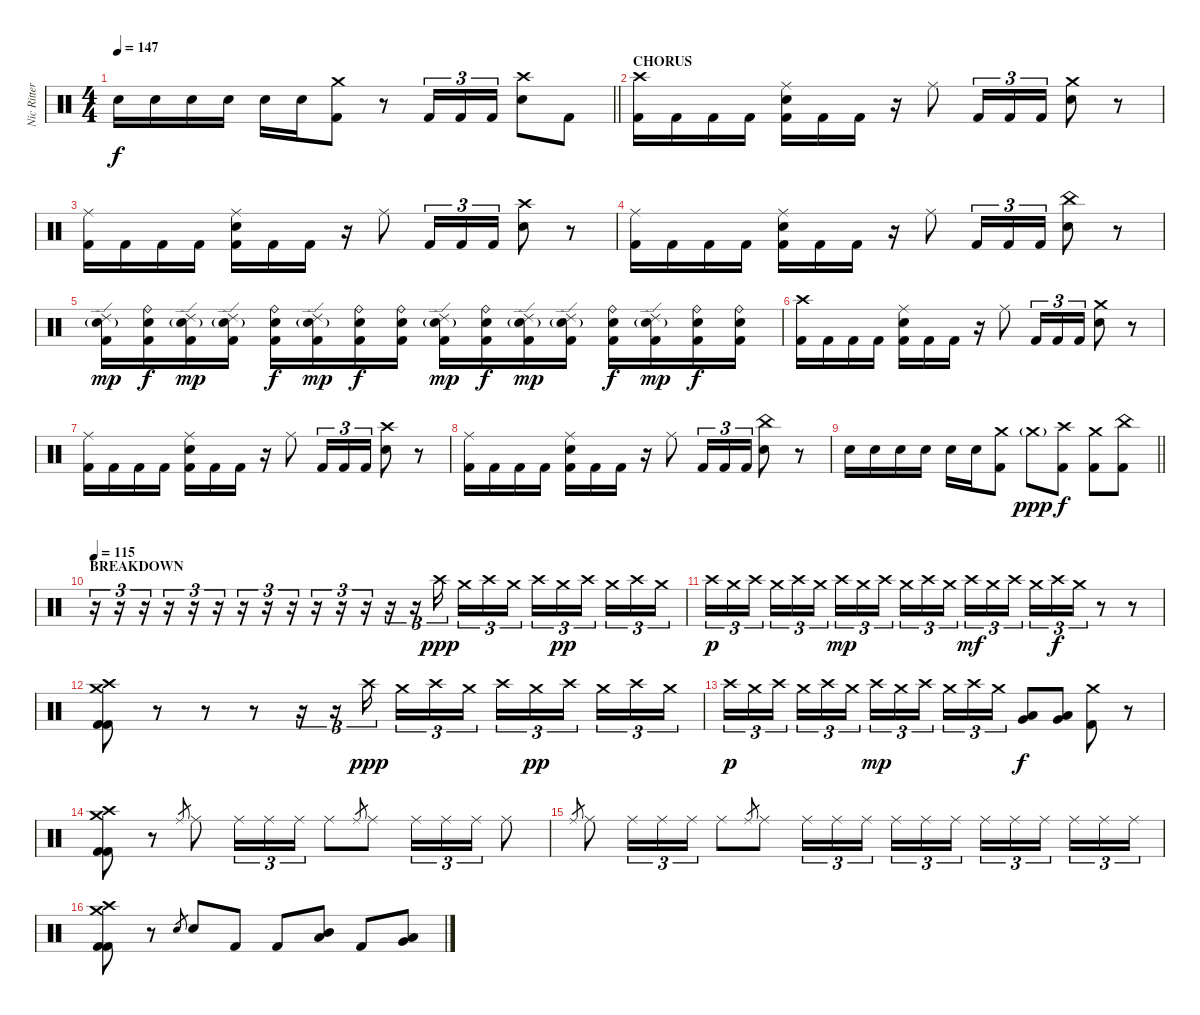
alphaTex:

\track ("Nic Ritter" "Nic Ritter") {instrument percussion}
\staff {score}
\articulation defaults
\ts (4 4)
\tempo 147
\clef neutral
\barLineRight lightlight
\ks c "Electric Snare (hit)".16{dy f} "Electric Snare (hit)".16 "Electric Snare (hit)".16 "Electric Snare (hit)".16 "Electric Snare (hit)".16 "Electric Snare (hit)".16
("Crash medium (hit)" "Kick (hit) 2").8 r.8 "Kick (hit) 2".16{tu (3 2)} "Kick (hit) 2".16{tu (3 2)} "Kick (hit) 2".16{tu (3 2)} ("Crash high (hit)" "Electric Snare (hit)").8 "Kick (hit) 2".8 |
\section ("" "CHORUS")
("Crash high (hit)" "Kick (hit) 2").16 "Kick (hit) 2".16 "Kick (hit) 2".16 "Kick (hit) 2".16 ("Ride (middle)" "Electric Snare (hit)" "Kick (hit) 2").16 "Kick (hit) 2".16 "Kick (hit) 2".16 r.16 "Ride (middle)".8 "Kick (hit) 2".16{tu (3 2)} "Kick (hit) 2".16{tu (3 2)} "Kick (hit) 2".16{tu (3 2)} ("Crash medium (hit)" "Electric Snare (hit)").8 r.8 |
("Ride (middle)" "Kick (hit) 2").16 "Kick (hit) 2".16 "Kick (hit) 2".16 "Kick (hit) 2".16 ("Ride (middle)" "Electric Snare (hit)" "Kick (hit) 2").16 "Kick (hit) 2".16 "Kick (hit) 2".16 r.16 "Ride (middle)".8 "Kick (hit) 2".16{tu (3 2)} "Kick (hit) 2".16{tu (3 2)} "Kick (hit) 2".16{tu (3 2)} ("Crash high (hit)" "Electric Snare (hit)").8 r.8 |
("Ride (middle)" "Kick (hit) 2").16 "Kick (hit) 2".16 "Kick (hit) 2".16 "Kick (hit) 2".16 ("Ride (middle)" "Electric Snare (hit)" "Kick (hit) 2").16 "Kick (hit) 2".16 "Kick (hit) 2".16 r.16 "Ride (middle)".8 "Kick (hit) 2".16{tu (3 2)} "Kick (hit) 2".16{tu (3 2)} "Kick (hit) 2".16{tu (3 2)} ("China (hit)" "Electric Snare (hit)").8 r.8 |
("Ride (edge) 2" "Electric Snare (hit)"{g} "Kick (hit) 2").16{dy mp} ("Ride (bell)" "Electric Snare (hit)" "Kick (hit) 2").16{dy f} ("Ride (edge) 2" "Electric Snare (hit)"{g} "Kick (hit) 2").16{dy mp} ("Ride (edge) 2" "Electric Snare (hit)"{g} "Kick (hit) 2").16 ("Ride (bell)" "Electric Snare (hit)" "Kick (hit) 2").16{dy f} ("Ride (edge) 2" "Electric Snare (hit)"{g} "Kick (hit) 2").16{dy mp} ("Ride (bell)" "Electric Snare (hit)" "Kick (hit) 2").16{dy f} ("Ride (bell)" "Electric Snare (hit)" "Kick (hit) 2").16 ("Ride (edge) 2" "Electric Snare (hit)"{g} "Kick (hit) 2").16{dy mp} ("Ride (bell)" "Electric Snare (hit)" "Kick (hit) 2").16{dy f} ("Ride (edge) 2" "Electric Snare (hit)"{g} "Kick (hit) 2").16{dy mp} ("Ride (edge) 2" "Electric Snare (hit)"{g} "Kick (hit) 2").16 ("Ride (bell)" "Electric Snare (hit)" "Kick (hit) 2").16{dy f} ("Ride (edge) 2" "Electric Snare (hit)"{g} "Kick (hit) 2").16{dy mp} ("Ride (bell)" "Electric Snare (hit)" "Kick (hit) 2").16{dy f} ("Ride (bell)" "Electric Snare (hit)" "Kick (hit) 2").16 |
("Crash high (hit)" "Kick (hit) 2").16 "Kick (hit) 2".16 "Kick (hit) 2".16 "Kick (hit) 2".16 ("Ride (middle)" "Electric Snare (hit)" "Kick (hit) 2").16 "Kick (hit) 2".16 "Kick (hit) 2".16 r.16 "Ride (middle)".8 "Kick (hit) 2".16{tu (3 2)} "Kick (hit) 2".16{tu (3 2)} "Kick (hit) 2".16{tu (3 2)} ("Crash medium (hit)" "Electric Snare (hit)").8 r.8 |
("Ride (middle)" "Kick (hit) 2").16 "Kick (hit) 2".16 "Kick (hit) 2".16 "Kick (hit) 2".16 ("Ride (middle)" "Electric Snare (hit)" "Kick (hit) 2").16 "Kick (hit) 2".16 "Kick (hit) 2".16 r.16 "Ride (middle)".8 "Kick (hit) 2".16{tu (3 2)} "Kick (hit) 2".16{tu (3 2)} "Kick (hit) 2".16{tu (3 2)} ("Crash high (hit)" "Electric Snare (hit)").8 r.8 |
("Ride (middle)" "Kick (hit) 2").16 "Kick (hit) 2".16 "Kick (hit) 2".16 "Kick (hit) 2".16 ("Ride (middle)" "Electric Snare (hit)" "Kick (hit) 2").16 "Kick (hit) 2".16 "Kick (hit) 2".16 r.16 "Ride (middle)".8 "Kick (hit) 2".16{tu (3 2)} "Kick (hit) 2".16{tu (3 2)} "Kick (hit) 2".16{tu (3 2)} ("China (hit)" "Electric Snare (hit)").8 r.8 |
\barLineRight lightlight "Electric Snare (hit)".16 "Electric Snare (hit)".16 "Electric Snare (hit)".16 "Electric Snare (hit)".16 "Electric Snare (hit)".16 "Electric Snare (hit)".16
("Crash medium (hit)" "Kick (hit) 2").8 "Crash medium (hit)"{g}.8{dy ppp} ("Crash high (hit)" "Kick (hit) 2").8{dy f} ("Crash medium (hit)" "Kick (hit) 2").8 ("China (hit)" "Kick (hit) 2").8 |
\section ("" "BREAKDOWN")
\tempo 115
r.16{tu (3 2)} r.16{tu (3 2)} r.16{tu (3 2)} r.16{tu (3 2)} r.16{tu (3 2)} r.16{tu (3 2)} r.16{tu (3 2)} r.16{tu (3 2)} r.16{tu (3 2)} r.16{tu (3 2)} r.16{tu (3 2)} r.16{tu (3 2)} r.16{tu (3 2)} r.16{tu (3 2)} "Crash high (hit)".16{tu (3 2) dy ppp beam splitsecondary} "Crash medium (hit)".16{tu (3 2)} "Crash high (hit)".16{tu (3 2)} "Crash medium (hit)".16{tu (3 2)} "Crash high (hit)".16{tu (3 2)} "Crash medium (hit)".16{tu (3 2) dy pp} "Crash high (hit)".16{tu (3 2) beam splitsecondary} "Crash medium (hit)".16{tu (3 2)} "Crash high (hit)".16{tu (3 2)} "Crash medium (hit)".16{tu (3 2)} |
"Crash high (hit)".16{tu (3 2) dy p} "Crash medium (hit)".16{tu (3 2)} "Crash high (hit)".16{tu (3 2) beam splitsecondary} "Crash medium (hit)".16{tu (3 2)} "Crash high (hit)".16{tu (3 2)} "Crash medium (hit)".16{tu (3 2)} "Crash high (hit)".16{tu (3 2) dy mp} "Crash medium (hit)".16{tu (3 2)} "Crash high (hit)".16{tu (3 2) beam splitsecondary} "Crash medium (hit)".16{tu (3 2)} "Crash high (hit)".16{tu (3 2)} "Crash medium (hit)".16{tu (3 2)} "Crash high (hit)".16{tu (3 2) dy mf} "Crash medium (hit)".16{tu (3 2)} "Crash high (hit)".16{tu (3 2) beam splitsecondary} "Crash medium (hit)".16{tu (3 2)} "Crash high (hit)".16{tu (3 2) dy f} "Crash medium (hit)".16{tu (3 2)} r.8 r.8 |
("Crash medium (hit)" "Crash high (hit)" "Kick (hit) 2" "Kick (hit) 2").8 r.8 r.8 r.8 r.16{tu (3 2)} r.16{tu (3 2)} "Crash high (hit)".16{tu (3 2) dy ppp beam splitsecondary} "Crash medium (hit)".16{tu (3 2)} "Crash high (hit)".16{tu (3 2)} "Crash medium (hit)".16{tu (3 2)} "Crash high (hit)".16{tu (3 2)} "Crash medium (hit)".16{tu (3 2) dy pp} "Crash high (hit)".16{tu (3 2) beam splitsecondary} "Crash medium (hit)".16{tu (3 2)} "Crash high (hit)".16{tu (3 2)} "Crash medium (hit)".16{tu (3 2)} |
"Crash high (hit)".16{tu (3 2) dy p} "Crash medium (hit)".16{tu (3 2)} "Crash high (hit)".16{tu (3 2) beam splitsecondary} "Crash medium (hit)".16{tu (3 2)} "Crash high (hit)".16{tu (3 2)} "Crash medium (hit)".16{tu (3 2)} "Crash high (hit)".16{tu (3 2) dy mp} "Crash medium (hit)".16{tu (3 2)} "Crash high (hit)".16{tu (3 2) beam splitsecondary} "Crash medium (hit)".16{tu (3 2)} "Crash high (hit)".16{tu (3 2)} "Crash medium (hit)".16{tu (3 2)} ("Low Tom (hit)" "Very Low Tom (hit)").8{bd 240 dy f} ("Low Tom (hit)" "Very Low Tom (hit)").8{bd 240} ("Crash medium (hit)" "Kick (hit) 2").8 r.8 |
("Crash medium (hit)" "Crash high (hit)" "Kick (hit) 2" "Kick (hit) 2").8 r.8 "Ride (middle)".8{gr} "Ride (middle)".8 "Ride (middle)".16{tu (3 2)} "Ride (middle)".16{tu (3 2)} "Ride (middle)".16{tu (3 2)} "Ride (middle)".8 "Ride (middle)".8{gr} "Ride (middle)".8 "Ride (middle)".16{tu (3 2)} "Ride (middle)".16{tu (3 2)} "Ride (middle)".16{tu (3 2)} "Ride (middle)".8 |
"Ride (middle)".8{gr} "Ride (middle)".8 "Ride (middle)".16{tu (3 2)} "Ride (middle)".16{tu (3 2)} "Ride (middle)".16{tu (3 2)} "Ride (middle)".8 "Ride (middle)".8{gr} "Ride (middle)".8 "Ride (middle)".16{tu (3 2)} "Ride (middle)".16{tu (3 2)} "Ride (middle)".16{tu (3 2) beam splitsecondary} "Ride (middle)".16{tu (3 2)} "Ride (middle)".16{tu (3 2)} "Ride (middle)".16{tu (3 2)} "Ride (middle)".16{tu (3 2)} "Ride (middle)".16{tu (3 2)} "Ride (middle)".16{tu (3 2) beam splitsecondary} "Ride (middle)".16{tu (3 2)} "Ride (middle)".16{tu (3 2)} "Ride (middle)".16{tu (3 2)} |
("Crash medium (hit)" "Crash high (hit)" "Kick (hit) 2" "Kick (hit) 2").8 r.8 "Electric Snare (hit)".8{gr} "Electric Snare (hit)".8 "Kick (hit) 2".8 "Kick (hit) 2".8 ("Mid Tom (hit)" "Low Tom (hit)").8{bd 240} "Kick (hit) 2".8 ("Low Tom (hit)" "Very Low Tom (hit)").8{bd 240}
